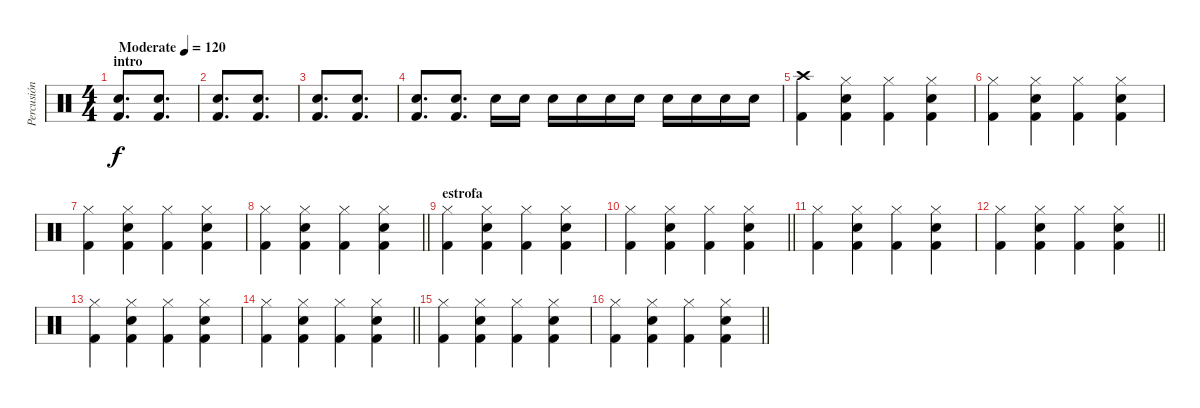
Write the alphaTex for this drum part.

\track ("Percusión" "Percusión") {instrument percussion}
\staff {score}
\articulation defaults
\ts (4 4)
\section ("" "intro")
\tempo (120 "Moderate")
\clef neutral
\ks c
("Kick (hit) 2" "Snare (hit) 2").8{d dy f} ("Snare (hit) 2" "Kick (hit) 2").8{d} |
("Kick (hit) 2" "Snare (hit) 2").8{d} ("Snare (hit) 2" "Kick (hit) 2").8{d} |
("Kick (hit) 2" "Snare (hit) 2").8{d} ("Snare (hit) 2" "Kick (hit) 2").8{d} |
("Kick (hit) 2" "Snare (hit) 2").8{d} ("Snare (hit) 2" "Kick (hit) 2").8{d} "Snare (hit) 2".16 "Snare (hit) 2".16 "Snare (hit) 2".16 "Snare (hit) 2".16 "Snare (hit) 2".16 "Snare (hit) 2".16 "Snare (hit) 2".16 "Snare (hit) 2".16 "Snare (hit) 2".16 "Snare (hit) 2".16 |
("Kick (hit) 2" "Crash high (hit)").4 ("Hi-Hat (closed)" "Snare (hit) 2" "Kick (hit) 2").4 ("Hi-Hat (closed)" "Kick (hit) 2").4 ("Hi-Hat (closed)" "Snare (hit) 2" "Kick (hit) 2").4 |
("Hi-Hat (closed)" "Kick (hit) 2").4 ("Hi-Hat (closed)" "Snare (hit) 2" "Kick (hit) 2").4 ("Hi-Hat (closed)" "Kick (hit) 2").4 ("Hi-Hat (closed)" "Snare (hit) 2" "Kick (hit) 2").4 |
("Hi-Hat (closed)" "Kick (hit) 2").4 ("Hi-Hat (closed)" "Snare (hit) 2" "Kick (hit) 2").4 ("Hi-Hat (closed)" "Kick (hit) 2").4 ("Hi-Hat (closed)" "Snare (hit) 2" "Kick (hit) 2").4 |
\barLineRight lightlight
("Hi-Hat (closed)" "Kick (hit) 2").4 ("Hi-Hat (closed)" "Snare (hit) 2" "Kick (hit) 2").4 ("Hi-Hat (closed)" "Kick (hit) 2").4 ("Hi-Hat (closed)" "Snare (hit) 2" "Kick (hit) 2").4 |
\section ("" "estrofa")
("Hi-Hat (closed)" "Kick (hit) 2").4 ("Hi-Hat (closed)" "Snare (hit) 2" "Kick (hit) 2").4 ("Hi-Hat (closed)" "Kick (hit) 2").4 ("Hi-Hat (closed)" "Snare (hit) 2" "Kick (hit) 2").4 |
\barLineRight lightlight
("Hi-Hat (closed)" "Kick (hit) 2").4 ("Hi-Hat (closed)" "Snare (hit) 2" "Kick (hit) 2").4 ("Hi-Hat (closed)" "Kick (hit) 2").4 ("Hi-Hat (closed)" "Snare (hit) 2" "Kick (hit) 2").4 |
("Hi-Hat (closed)" "Kick (hit) 2").4 ("Hi-Hat (closed)" "Snare (hit) 2" "Kick (hit) 2").4 ("Hi-Hat (closed)" "Kick (hit) 2").4 ("Hi-Hat (closed)" "Snare (hit) 2" "Kick (hit) 2").4 |
\barLineRight lightlight
("Hi-Hat (closed)" "Kick (hit) 2").4 ("Hi-Hat (closed)" "Snare (hit) 2" "Kick (hit) 2").4 ("Hi-Hat (closed)" "Kick (hit) 2").4 ("Hi-Hat (closed)" "Snare (hit) 2" "Kick (hit) 2").4 |
("Hi-Hat (closed)" "Kick (hit) 2").4 ("Hi-Hat (closed)" "Snare (hit) 2" "Kick (hit) 2").4 ("Hi-Hat (closed)" "Kick (hit) 2").4 ("Hi-Hat (closed)" "Snare (hit) 2" "Kick (hit) 2").4 |
\barLineRight lightlight
("Hi-Hat (closed)" "Kick (hit) 2").4 ("Hi-Hat (closed)" "Snare (hit) 2" "Kick (hit) 2").4 ("Hi-Hat (closed)" "Kick (hit) 2").4 ("Hi-Hat (closed)" "Snare (hit) 2" "Kick (hit) 2").4 |
("Hi-Hat (closed)" "Kick (hit) 2").4 ("Hi-Hat (closed)" "Snare (hit) 2" "Kick (hit) 2").4 ("Hi-Hat (closed)" "Kick (hit) 2").4 ("Hi-Hat (closed)" "Snare (hit) 2" "Kick (hit) 2").4 |
\barLineRight lightlight
("Hi-Hat (closed)" "Kick (hit) 2").4 ("Hi-Hat (closed)" "Snare (hit) 2" "Kick (hit) 2").4 ("Hi-Hat (closed)" "Kick (hit) 2").4 ("Hi-Hat (closed)" "Snare (hit) 2" "Kick (hit) 2").4
